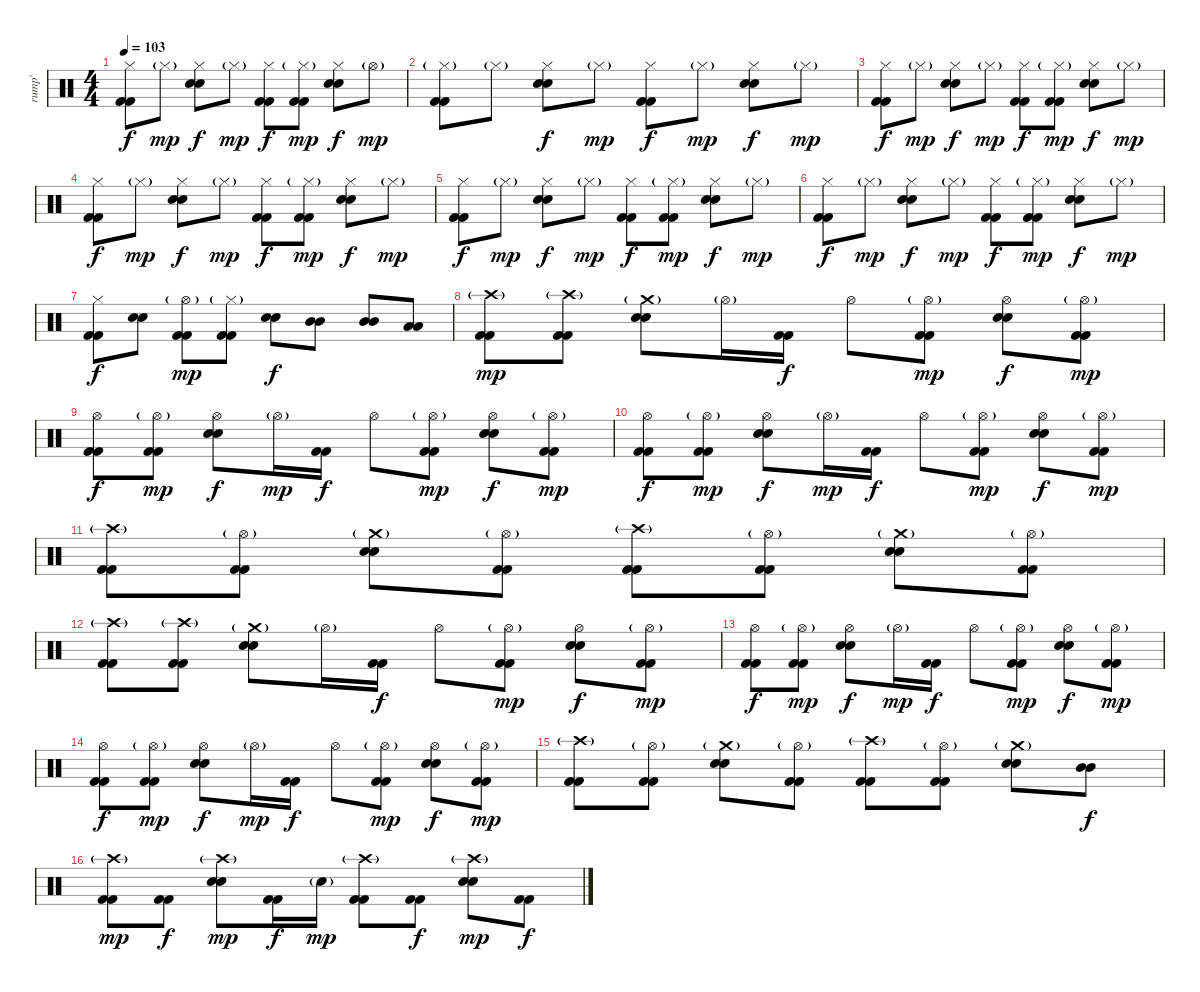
\track ("rump'" "rump'") {instrument percussion}
\staff {score}
\articulation defaults
\ts (4 4)
\tempo 103
\clef neutral
\ks c
("Hi-Hat (closed)" "Kick (hit) 2" "Kick (hit) 2").8{dy f} "Hi-Hat (closed)"{g}.8{dy mp} ("Hi-Hat (closed)" "Electric Snare (hit)" "Electric Snare (hit)").8{dy f} "Hi-Hat (closed)"{g}.8{dy mp} ("Hi-Hat (closed)" "Kick (hit) 2" "Kick (hit) 2").8{dy f} ("Hi-Hat (closed)"{g} "Kick (hit) 2" "Kick (hit) 2").8{dy mp} ("Hi-Hat (closed)" "Electric Snare (hit)" "Electric Snare (hit)").8{dy f} "Hi-Hat (open)"{g}.8{dy mp} |
("Hi-Hat (closed)"{g} "Kick (hit) 2" "Kick (hit) 2").8 "Hi-Hat (closed)"{g}.8 ("Hi-Hat (closed)" "Electric Snare (hit)" "Electric Snare (hit)").8{dy f} "Hi-Hat (closed)"{g}.8{dy mp} ("Hi-Hat (closed)" "Kick (hit) 2" "Kick (hit) 2").8{dy f} "Hi-Hat (closed)"{g}.8{dy mp} ("Hi-Hat (closed)" "Electric Snare (hit)" "Electric Snare (hit)").8{dy f} "Hi-Hat (closed)"{g}.8{dy mp} |
("Hi-Hat (closed)" "Kick (hit) 2" "Kick (hit) 2").8{dy f} "Hi-Hat (closed)"{g}.8{dy mp} ("Hi-Hat (closed)" "Electric Snare (hit)" "Electric Snare (hit)").8{dy f} "Hi-Hat (closed)"{g}.8{dy mp} ("Hi-Hat (closed)" "Kick (hit) 2" "Kick (hit) 2").8{dy f} ("Hi-Hat (closed)"{g} "Kick (hit) 2" "Kick (hit) 2").8{dy mp} ("Hi-Hat (closed)" "Electric Snare (hit)" "Electric Snare (hit)").8{dy f} "Hi-Hat (closed)"{g}.8{dy mp} |
("Hi-Hat (closed)" "Kick (hit) 2" "Kick (hit) 2").8{dy f} "Hi-Hat (closed)"{g}.8{dy mp} ("Hi-Hat (closed)" "Electric Snare (hit)" "Electric Snare (hit)").8{dy f} "Hi-Hat (closed)"{g}.8{dy mp} ("Hi-Hat (closed)" "Kick (hit) 2" "Kick (hit) 2").8{dy f} ("Hi-Hat (closed)"{g} "Kick (hit) 2" "Kick (hit) 2").8{dy mp} ("Hi-Hat (closed)" "Electric Snare (hit)" "Electric Snare (hit)").8{dy f} "Hi-Hat (closed)"{g}.8{dy mp} |
("Hi-Hat (closed)" "Kick (hit) 2" "Kick (hit) 2").8{dy f} "Hi-Hat (closed)"{g}.8{dy mp} ("Hi-Hat (closed)" "Electric Snare (hit)" "Electric Snare (hit)").8{dy f} "Hi-Hat (closed)"{g}.8{dy mp} ("Hi-Hat (closed)" "Kick (hit) 2" "Kick (hit) 2").8{dy f} ("Hi-Hat (closed)"{g} "Kick (hit) 2" "Kick (hit) 2").8{dy mp} ("Hi-Hat (closed)" "Electric Snare (hit)" "Electric Snare (hit)").8{dy f} "Hi-Hat (closed)"{g}.8{dy mp} |
("Hi-Hat (closed)" "Kick (hit) 2" "Kick (hit) 2").8{dy f} "Hi-Hat (closed)"{g}.8{dy mp} ("Hi-Hat (closed)" "Electric Snare (hit)" "Electric Snare (hit)").8{dy f} "Hi-Hat (closed)"{g}.8{dy mp} ("Hi-Hat (closed)" "Kick (hit) 2" "Kick (hit) 2").8{dy f} ("Hi-Hat (closed)"{g} "Kick (hit) 2" "Kick (hit) 2").8{dy mp} ("Hi-Hat (closed)" "Electric Snare (hit)" "Electric Snare (hit)").8{dy f} "Hi-Hat (closed)"{g}.8{dy mp} |
("Hi-Hat (closed)" "Kick (hit) 2" "Kick (hit) 2").8{dy f} ("Electric Snare (hit)" "Electric Snare (hit)").8 ("Hi-Hat (open)"{g} "Kick (hit) 2" "Kick (hit) 2").8{dy mp} ("Hi-Hat (closed)"{g} "Kick (hit) 2" "Kick (hit) 2").8 ("Electric Snare (hit)" "Electric Snare (hit)").8{dy f} ("Mid Tom (hit)" "Mid Tom (hit)").8 ("Mid Tom (hit)" "Mid Tom (hit)").8 ("Low Tom (hit)" "Low Tom (hit)").8 |
("Crash high (hit)"{g} "Kick (hit) 2" "Kick (hit) 2").8{dy mp} ("Crash high (hit)"{g} "Kick (hit) 2" "Kick (hit) 2").8 ("Crash medium (hit)"{g} "Electric Snare (hit)" "Electric Snare (hit)").8 "Hi-Hat (open)"{g}.16 ("Kick (hit) 2" "Kick (hit) 2").16{dy f} "Hi-Hat (open)".8 ("Hi-Hat (open)"{g} "Kick (hit) 2" "Kick (hit) 2").8{dy mp} ("Hi-Hat (open)" "Electric Snare (hit)" "Electric Snare (hit)").8{dy f} ("Hi-Hat (open)"{g} "Kick (hit) 2" "Kick (hit) 2").8{dy mp} |
("Hi-Hat (open)" "Kick (hit) 2" "Kick (hit) 2").8{dy f} ("Hi-Hat (open)"{g} "Kick (hit) 2" "Kick (hit) 2").8{dy mp} ("Hi-Hat (open)" "Electric Snare (hit)" "Electric Snare (hit)").8{dy f} "Hi-Hat (open)"{g}.16{dy mp} ("Kick (hit) 2" "Kick (hit) 2").16{dy f} "Hi-Hat (open)".8 ("Hi-Hat (open)"{g} "Kick (hit) 2" "Kick (hit) 2").8{dy mp} ("Hi-Hat (open)" "Electric Snare (hit)" "Electric Snare (hit)").8{dy f} ("Hi-Hat (open)"{g} "Kick (hit) 2" "Kick (hit) 2").8{dy mp} |
("Hi-Hat (open)" "Kick (hit) 2" "Kick (hit) 2").8{dy f} ("Hi-Hat (open)"{g} "Kick (hit) 2" "Kick (hit) 2").8{dy mp} ("Hi-Hat (open)" "Electric Snare (hit)" "Electric Snare (hit)").8{dy f} "Hi-Hat (open)"{g}.16{dy mp} ("Kick (hit) 2" "Kick (hit) 2").16{dy f} "Hi-Hat (open)".8 ("Hi-Hat (open)"{g} "Kick (hit) 2" "Kick (hit) 2").8{dy mp} ("Hi-Hat (open)" "Electric Snare (hit)" "Electric Snare (hit)").8{dy f} ("Hi-Hat (open)"{g} "Kick (hit) 2" "Kick (hit) 2").8{dy mp} |
("Crash high (hit)"{g} "Kick (hit) 2" "Kick (hit) 2").8 ("Hi-Hat (open)"{g} "Kick (hit) 2" "Kick (hit) 2").8 ("Crash medium (hit)"{g} "Electric Snare (hit)" "Electric Snare (hit)").8 ("Hi-Hat (open)"{g} "Kick (hit) 2" "Kick (hit) 2").8 ("Crash high (hit)"{g} "Kick (hit) 2" "Kick (hit) 2").8 ("Hi-Hat (open)"{g} "Kick (hit) 2" "Kick (hit) 2").8 ("Crash medium (hit)"{g} "Electric Snare (hit)" "Electric Snare (hit)").8 ("Hi-Hat (open)"{g} "Kick (hit) 2" "Kick (hit) 2").8 |
("Crash high (hit)"{g} "Kick (hit) 2" "Kick (hit) 2").8 ("Crash high (hit)"{g} "Kick (hit) 2" "Kick (hit) 2").8 ("Crash medium (hit)"{g} "Electric Snare (hit)" "Electric Snare (hit)").8 "Hi-Hat (open)"{g}.16 ("Kick (hit) 2" "Kick (hit) 2").16{dy f} "Hi-Hat (open)".8 ("Hi-Hat (open)"{g} "Kick (hit) 2" "Kick (hit) 2").8{dy mp} ("Hi-Hat (open)" "Electric Snare (hit)" "Electric Snare (hit)").8{dy f} ("Hi-Hat (open)"{g} "Kick (hit) 2" "Kick (hit) 2").8{dy mp} |
("Hi-Hat (open)" "Kick (hit) 2" "Kick (hit) 2").8{dy f} ("Hi-Hat (open)"{g} "Kick (hit) 2" "Kick (hit) 2").8{dy mp} ("Hi-Hat (open)" "Electric Snare (hit)" "Electric Snare (hit)").8{dy f} "Hi-Hat (open)"{g}.16{dy mp} ("Kick (hit) 2" "Kick (hit) 2").16{dy f} "Hi-Hat (open)".8 ("Hi-Hat (open)"{g} "Kick (hit) 2" "Kick (hit) 2").8{dy mp} ("Hi-Hat (open)" "Electric Snare (hit)" "Electric Snare (hit)").8{dy f} ("Hi-Hat (open)"{g} "Kick (hit) 2" "Kick (hit) 2").8{dy mp} |
("Hi-Hat (open)" "Kick (hit) 2" "Kick (hit) 2").8{dy f} ("Hi-Hat (open)"{g} "Kick (hit) 2" "Kick (hit) 2").8{dy mp} ("Hi-Hat (open)" "Electric Snare (hit)" "Electric Snare (hit)").8{dy f} "Hi-Hat (open)"{g}.16{dy mp} ("Kick (hit) 2" "Kick (hit) 2").16{dy f} "Hi-Hat (open)".8 ("Hi-Hat (open)"{g} "Kick (hit) 2" "Kick (hit) 2").8{dy mp} ("Hi-Hat (open)" "Electric Snare (hit)" "Electric Snare (hit)").8{dy f} ("Hi-Hat (open)"{g} "Kick (hit) 2" "Kick (hit) 2").8{dy mp} |
("Crash high (hit)"{g} "Kick (hit) 2" "Kick (hit) 2").8 ("Hi-Hat (open)"{g} "Kick (hit) 2" "Kick (hit) 2").8 ("Crash medium (hit)"{g} "Electric Snare (hit)" "Electric Snare (hit)").8 ("Hi-Hat (open)"{g} "Kick (hit) 2" "Kick (hit) 2").8 ("Crash high (hit)"{g} "Kick (hit) 2" "Kick (hit) 2").8 ("Hi-Hat (open)"{g} "Kick (hit) 2" "Kick (hit) 2").8 ("Crash medium (hit)"{g} "Electric Snare (hit)" "Electric Snare (hit)").8 ("Mid Tom (hit)" "Mid Tom (hit)").8{dy f} |
("Crash high (hit)"{g} "Kick (hit) 2" "Kick (hit) 2").8{dy mp} ("Kick (hit) 2" "Kick (hit) 2").8{dy f} ("Crash high (hit)"{g} "Electric Snare (hit)" "Electric Snare (hit)").8{dy mp} ("Kick (hit) 2" "Kick (hit) 2").16{dy f} "Electric Snare (hit)"{g}.16{dy mp} ("Crash high (hit)"{g} "Kick (hit) 2" "Kick (hit) 2").8 ("Kick (hit) 2" "Kick (hit) 2").8{dy f} ("Crash high (hit)"{g} "Electric Snare (hit)" "Electric Snare (hit)").8{dy mp} ("Kick (hit) 2" "Kick (hit) 2").8{dy f}
